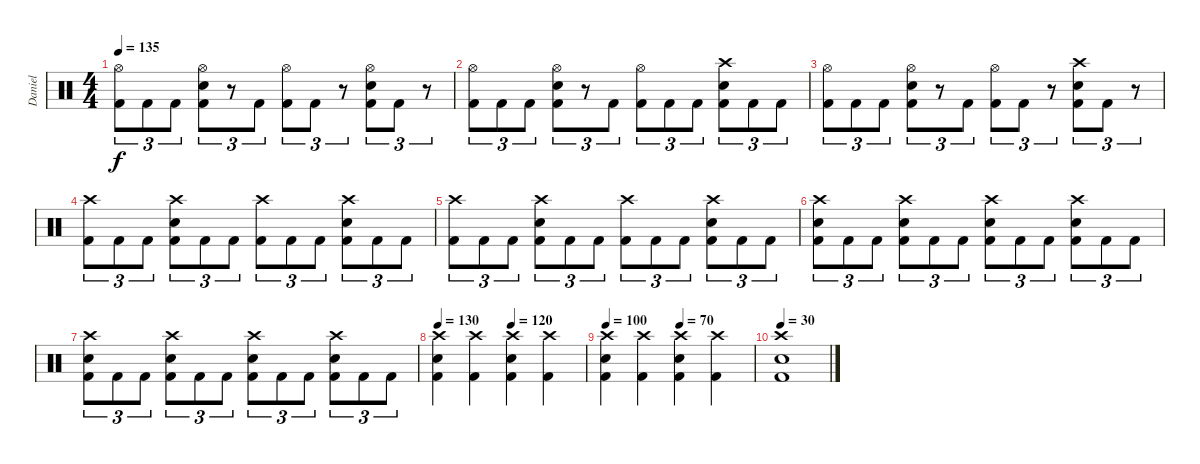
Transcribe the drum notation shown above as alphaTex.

\track ("Daniel" "Daniel") {instrument percussion}
\staff {score}
\articulation defaults
\ts (4 4)
\tempo 135
\clef neutral
\ks c
("Hi-Hat (open)" "Kick (hit) 2").8{tu (3 2) dy f} "Kick (hit) 2".8{tu (3 2)} "Kick (hit) 2".8{tu (3 2)} ("Hi-Hat (open)" "Electric Snare (hit)" "Kick (hit) 2").8{tu (3 2)} r.8{tu (3 2)} "Kick (hit) 2".8{tu (3 2)} ("Hi-Hat (open)" "Kick (hit) 2").8{tu (3 2)} "Kick (hit) 2".8{tu (3 2)} r.8{tu (3 2)} ("Hi-Hat (open)" "Electric Snare (hit)" "Kick (hit) 2").8{tu (3 2)} "Kick (hit) 2".8{tu (3 2)} r.8{tu (3 2)} |
("Hi-Hat (open)" "Kick (hit) 2").8{tu (3 2)} "Kick (hit) 2".8{tu (3 2)} "Kick (hit) 2".8{tu (3 2)} ("Hi-Hat (open)" "Electric Snare (hit)" "Kick (hit) 2").8{tu (3 2)} r.8{tu (3 2)} "Kick (hit) 2".8{tu (3 2)} ("Hi-Hat (open)" "Kick (hit) 2").8{tu (3 2)} "Kick (hit) 2".8{tu (3 2)} "Kick (hit) 2".8{tu (3 2)} ("Crash high (hit)" "Electric Snare (hit)" "Kick (hit) 2").8{tu (3 2)} "Kick (hit) 2".8{tu (3 2)} "Kick (hit) 2".8{tu (3 2)} |
("Hi-Hat (open)" "Kick (hit) 2").8{tu (3 2)} "Kick (hit) 2".8{tu (3 2)} "Kick (hit) 2".8{tu (3 2)} ("Hi-Hat (open)" "Electric Snare (hit)" "Kick (hit) 2").8{tu (3 2)} r.8{tu (3 2)} "Kick (hit) 2".8{tu (3 2)} ("Hi-Hat (open)" "Kick (hit) 2").8{tu (3 2)} "Kick (hit) 2".8{tu (3 2)} r.8{tu (3 2)} ("Crash high (hit)" "Electric Snare (hit)" "Kick (hit) 2").8{tu (3 2)} "Kick (hit) 2".8{tu (3 2)} r.8{tu (3 2)} |
("Crash high (hit)" "Kick (hit) 2").8{tu (3 2)} "Kick (hit) 2".8{tu (3 2)} "Kick (hit) 2".8{tu (3 2)} ("Crash high (hit)" "Electric Snare (hit)" "Kick (hit) 2").8{tu (3 2)} "Kick (hit) 2".8{tu (3 2)} "Kick (hit) 2".8{tu (3 2)} ("Crash high (hit)" "Kick (hit) 2").8{tu (3 2)} "Kick (hit) 2".8{tu (3 2)} "Kick (hit) 2".8{tu (3 2)} ("Crash high (hit)" "Electric Snare (hit)" "Kick (hit) 2").8{tu (3 2)} "Kick (hit) 2".8{tu (3 2)} "Kick (hit) 2".8{tu (3 2)} |
("Crash high (hit)" "Kick (hit) 2").8{tu (3 2)} "Kick (hit) 2".8{tu (3 2)} "Kick (hit) 2".8{tu (3 2)} ("Crash high (hit)" "Electric Snare (hit)" "Kick (hit) 2").8{tu (3 2)} "Kick (hit) 2".8{tu (3 2)} "Kick (hit) 2".8{tu (3 2)} ("Crash high (hit)" "Kick (hit) 2").8{tu (3 2)} "Kick (hit) 2".8{tu (3 2)} "Kick (hit) 2".8{tu (3 2)} ("Crash high (hit)" "Electric Snare (hit)" "Kick (hit) 2").8{tu (3 2)} "Kick (hit) 2".8{tu (3 2)} "Kick (hit) 2".8{tu (3 2)} |
("Crash high (hit)" "Electric Snare (hit)" "Kick (hit) 2").8{tu (3 2)} "Kick (hit) 2".8{tu (3 2)} "Kick (hit) 2".8{tu (3 2)} ("Crash high (hit)" "Electric Snare (hit)" "Kick (hit) 2").8{tu (3 2)} "Kick (hit) 2".8{tu (3 2)} "Kick (hit) 2".8{tu (3 2)} ("Crash high (hit)" "Electric Snare (hit)" "Kick (hit) 2").8{tu (3 2)} "Kick (hit) 2".8{tu (3 2)} "Kick (hit) 2".8{tu (3 2)} ("Crash high (hit)" "Electric Snare (hit)" "Kick (hit) 2").8{tu (3 2)} "Kick (hit) 2".8{tu (3 2)} "Kick (hit) 2".8{tu (3 2)} |
("Crash high (hit)" "Electric Snare (hit)" "Kick (hit) 2").8{tu (3 2)} "Kick (hit) 2".8{tu (3 2)} "Kick (hit) 2".8{tu (3 2)} ("Crash high (hit)" "Electric Snare (hit)" "Kick (hit) 2").8{tu (3 2)} "Kick (hit) 2".8{tu (3 2)} "Kick (hit) 2".8{tu (3 2)} ("Crash high (hit)" "Electric Snare (hit)" "Kick (hit) 2").8{tu (3 2)} "Kick (hit) 2".8{tu (3 2)} "Kick (hit) 2".8{tu (3 2)} ("Crash high (hit)" "Electric Snare (hit)" "Kick (hit) 2").8{tu (3 2)} "Kick (hit) 2".8{tu (3 2)} "Kick (hit) 2".8{tu (3 2)} |
\tempo 130
\tempo (120 0.5)
("Crash high (hit)" "Electric Snare (hit)" "Kick (hit) 2").4 ("Crash high (hit)" "Kick (hit) 2").4 ("Crash high (hit)" "Electric Snare (hit)" "Kick (hit) 2").4 ("Crash high (hit)" "Kick (hit) 2").4 |
\tempo 100
\tempo (70 0.5)
("Crash high (hit)" "Electric Snare (hit)" "Kick (hit) 2").4 ("Crash high (hit)" "Kick (hit) 2").4 ("Crash high (hit)" "Electric Snare (hit)" "Kick (hit) 2").4 ("Crash high (hit)" "Kick (hit) 2").4 |
\tempo 40
\tempo 30
("Crash high (hit)" "Electric Snare (hit)" "Kick (hit) 2").1
